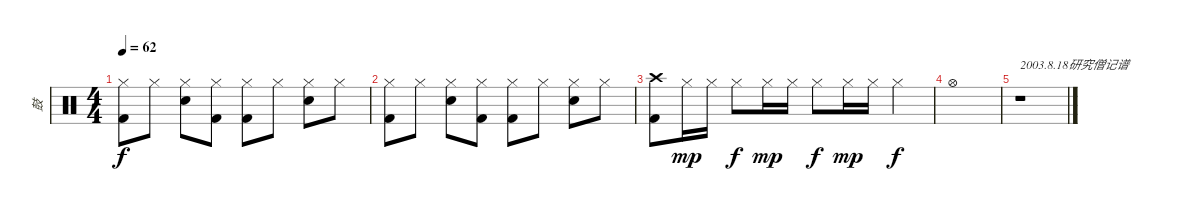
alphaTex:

\track ("鼓" "鼓") {instrument percussion}
\staff {score}
\articulation defaults
\ts (4 4)
\tempo 62
\clef neutral
\ks c
("Hi-Hat (closed)" "Kick (hit) 2").8{dy f} "Hi-Hat (closed)".8 ("Hi-Hat (closed)" "Snare (hit) 2").8 ("Hi-Hat (closed)" "Kick (hit) 2").8 ("Hi-Hat (closed)" "Kick (hit) 2").8 "Hi-Hat (closed)".8 ("Hi-Hat (closed)" "Snare (hit) 2").8 "Hi-Hat (closed)".8 |
("Hi-Hat (closed)" "Kick (hit) 2").8 "Hi-Hat (closed)".8 ("Hi-Hat (closed)" "Snare (hit) 2").8 ("Hi-Hat (closed)" "Kick (hit) 2").8 ("Hi-Hat (closed)" "Kick (hit) 2").8 "Hi-Hat (closed)".8 ("Hi-Hat (closed)" "Snare (hit) 2").8 "Hi-Hat (closed)".8 |
("Crash high (hit)" "Kick (hit) 2").8 "Hi-Hat (closed)".16{dy mp} "Hi-Hat (closed)".16 "Hi-Hat (closed)".8{dy f} "Hi-Hat (closed)".16{dy mp} "Hi-Hat (closed)".16 "Hi-Hat (closed)".8{dy f} "Hi-Hat (closed)".16{dy mp} "Hi-Hat (closed)".16 "Hi-Hat (closed)".4{dy f} |
"Hi-Hat (open)".1 |
r.1{txt "2003.8.18研究僧记谱"}
